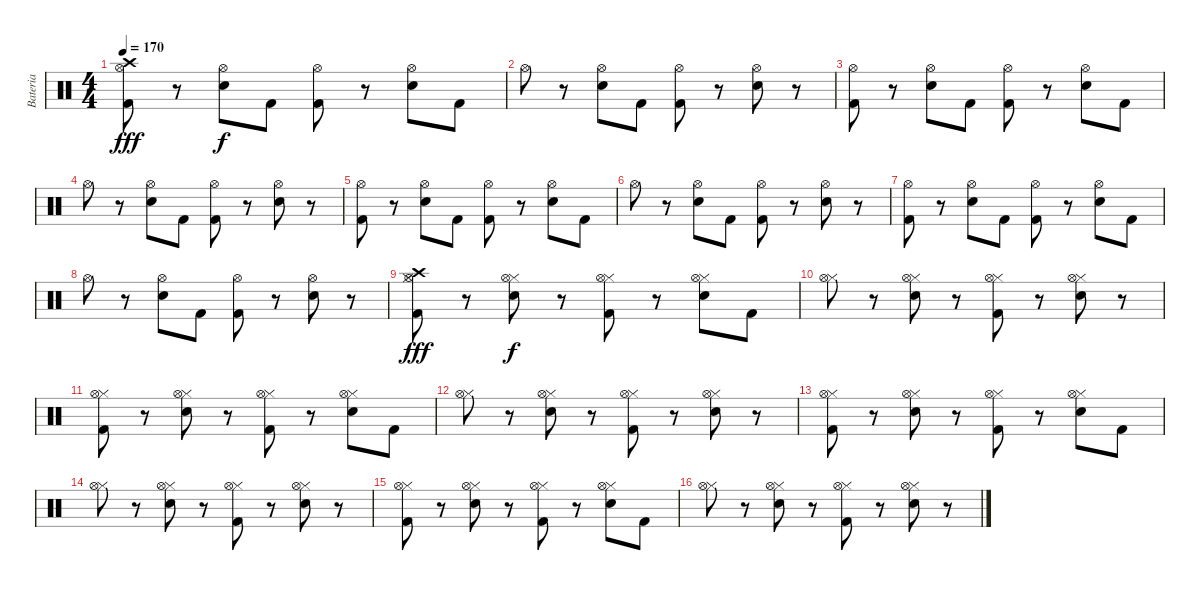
\track ("Bateria" "Bateria") {instrument percussion}
\staff {score}
\articulation defaults
\ts (4 4)
\tempo 170
\clef neutral
\ks c
("Kick (hit) 2" "Hi-Hat (open)" "Crash high (hit)").8{dy fff} r.8 ("Snare (hit) 2" "Hi-Hat (open)").8{dy f} "Kick (hit) 2".8 ("Kick (hit) 2" "Hi-Hat (open)").8 r.8 ("Snare (hit) 2" "Hi-Hat (open)").8 "Kick (hit) 2".8 |
"Hi-Hat (open)".8 r.8 ("Snare (hit) 2" "Hi-Hat (open)").8 "Kick (hit) 2".8 ("Kick (hit) 2" "Hi-Hat (open)").8 r.8 ("Snare (hit) 2" "Hi-Hat (open)").8 r.8 |
("Kick (hit) 2" "Hi-Hat (open)").8 r.8 ("Snare (hit) 2" "Hi-Hat (open)").8 "Kick (hit) 2".8 ("Kick (hit) 2" "Hi-Hat (open)").8 r.8 ("Snare (hit) 2" "Hi-Hat (open)").8 "Kick (hit) 2".8 |
"Hi-Hat (open)".8 r.8 ("Snare (hit) 2" "Hi-Hat (open)").8 "Kick (hit) 2".8 ("Kick (hit) 2" "Hi-Hat (open)").8 r.8 ("Snare (hit) 2" "Hi-Hat (open)").8 r.8 |
("Kick (hit) 2" "Hi-Hat (open)").8 r.8 ("Snare (hit) 2" "Hi-Hat (open)").8 "Kick (hit) 2".8 ("Kick (hit) 2" "Hi-Hat (open)").8 r.8 ("Snare (hit) 2" "Hi-Hat (open)").8 "Kick (hit) 2".8 |
"Hi-Hat (open)".8 r.8 ("Snare (hit) 2" "Hi-Hat (open)").8 "Kick (hit) 2".8 ("Kick (hit) 2" "Hi-Hat (open)").8 r.8 ("Snare (hit) 2" "Hi-Hat (open)").8 r.8 |
("Kick (hit) 2" "Hi-Hat (open)").8 r.8 ("Snare (hit) 2" "Hi-Hat (open)").8 "Kick (hit) 2".8 ("Kick (hit) 2" "Hi-Hat (open)").8 r.8 ("Snare (hit) 2" "Hi-Hat (open)").8 "Kick (hit) 2".8 |
"Hi-Hat (open)".8 r.8 ("Snare (hit) 2" "Hi-Hat (open)").8 "Kick (hit) 2".8 ("Kick (hit) 2" "Hi-Hat (open)").8 r.8 ("Snare (hit) 2" "Hi-Hat (open)").8 r.8 |
("Crash high (hit)" "Kick (hit) 2" "Hi-Hat (closed)" "Hi-Hat (open)").8{dy fff} r.8 ("Snare (hit) 2" "Hi-Hat (closed)" "Hi-Hat (open)").8{dy f} r.8 ("Kick (hit) 2" "Hi-Hat (closed)" "Hi-Hat (open)").8 r.8 ("Snare (hit) 2" "Hi-Hat (closed)" "Hi-Hat (open)").8 "Kick (hit) 2".8 |
("Hi-Hat (closed)" "Hi-Hat (open)").8 r.8 ("Snare (hit) 2" "Hi-Hat (closed)" "Hi-Hat (open)").8 r.8 ("Kick (hit) 2" "Hi-Hat (closed)" "Hi-Hat (open)").8 r.8 ("Snare (hit) 2" "Hi-Hat (closed)" "Hi-Hat (open)").8 r.8 |
("Kick (hit) 2" "Hi-Hat (closed)" "Hi-Hat (open)").8 r.8 ("Snare (hit) 2" "Hi-Hat (closed)" "Hi-Hat (open)").8 r.8 ("Kick (hit) 2" "Hi-Hat (closed)" "Hi-Hat (open)").8 r.8 ("Snare (hit) 2" "Hi-Hat (closed)" "Hi-Hat (open)").8 "Kick (hit) 2".8 |
("Hi-Hat (closed)" "Hi-Hat (open)").8 r.8 ("Snare (hit) 2" "Hi-Hat (closed)" "Hi-Hat (open)").8 r.8 ("Kick (hit) 2" "Hi-Hat (closed)" "Hi-Hat (open)").8 r.8 ("Snare (hit) 2" "Hi-Hat (closed)" "Hi-Hat (open)").8 r.8 |
("Kick (hit) 2" "Hi-Hat (closed)" "Hi-Hat (open)").8 r.8 ("Snare (hit) 2" "Hi-Hat (closed)" "Hi-Hat (open)").8 r.8 ("Kick (hit) 2" "Hi-Hat (closed)" "Hi-Hat (open)").8 r.8 ("Snare (hit) 2" "Hi-Hat (closed)" "Hi-Hat (open)").8 "Kick (hit) 2".8 |
("Hi-Hat (closed)" "Hi-Hat (open)").8 r.8 ("Snare (hit) 2" "Hi-Hat (closed)" "Hi-Hat (open)").8 r.8 ("Kick (hit) 2" "Hi-Hat (closed)" "Hi-Hat (open)").8 r.8 ("Snare (hit) 2" "Hi-Hat (closed)" "Hi-Hat (open)").8 r.8 |
("Kick (hit) 2" "Hi-Hat (closed)" "Hi-Hat (open)").8 r.8 ("Snare (hit) 2" "Hi-Hat (closed)" "Hi-Hat (open)").8 r.8 ("Kick (hit) 2" "Hi-Hat (closed)" "Hi-Hat (open)").8 r.8 ("Snare (hit) 2" "Hi-Hat (closed)" "Hi-Hat (open)").8 "Kick (hit) 2".8 |
("Hi-Hat (closed)" "Hi-Hat (open)").8 r.8 ("Snare (hit) 2" "Hi-Hat (closed)" "Hi-Hat (open)").8 r.8 ("Kick (hit) 2" "Hi-Hat (closed)" "Hi-Hat (open)").8 r.8 ("Snare (hit) 2" "Hi-Hat (closed)" "Hi-Hat (open)").8 r.8
